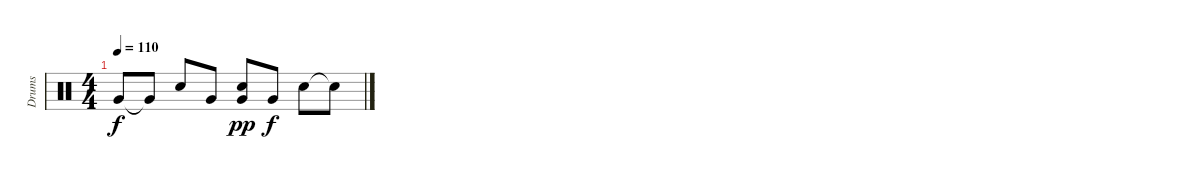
\track ("Drums" "Drums") {instrument percussion}
\staff {score}
\articulation defaults
\ts (4 4)
\tempo 110
\clef neutral
\ks c "Very Low Tom (hit)".8{dy f} "Very Low Tom (hit)"{t}.8 "Electric Snare (hit)".8 "Very Low Tom (hit)".8
("Electric Snare (hit)" "Very Low Tom (hit)"{t}).8{dy pp} "Very Low Tom (hit)".8{dy f} "Electric Snare (hit)".8 "Snare (hit)"{t}.8
